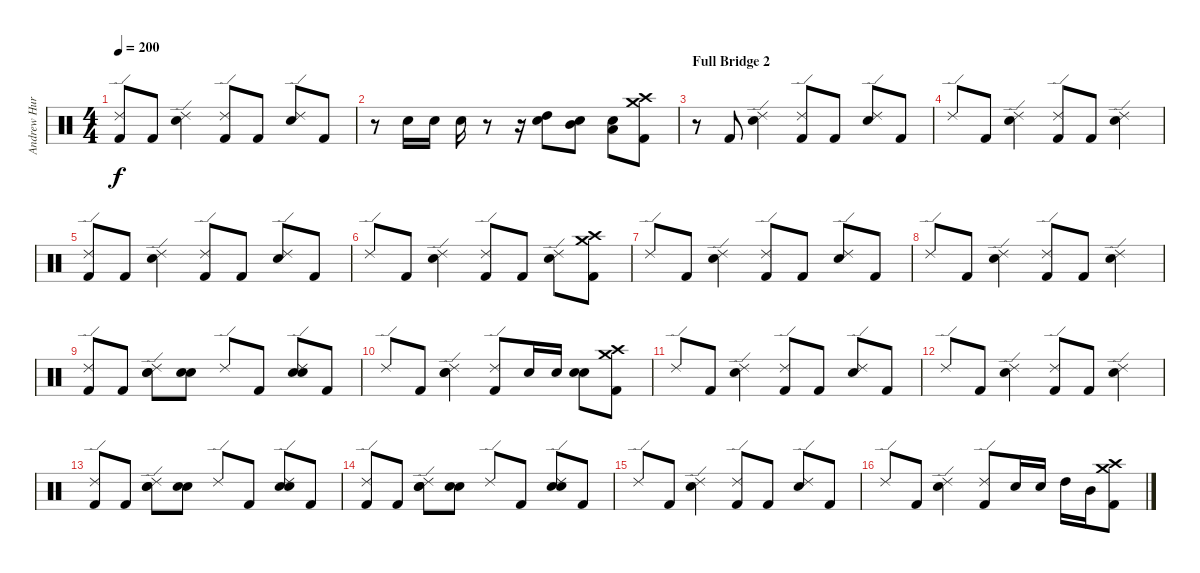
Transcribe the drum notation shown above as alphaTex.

\track ("Andrew Hurley (Drums)" "Andrew Hur") {instrument percussion}
\staff {score}
\articulation defaults
\ts (4 4)
\tempo 200
\clef neutral
\ks c
("Kick (hit) 2" "Ride (edge) 2").8{dy f} "Kick (hit) 2".8 ("Electric Snare (hit)" "Ride (edge) 2").4 ("Kick (hit) 2" "Ride (edge) 2").8 "Kick (hit) 2".8 ("Electric Snare (hit)" "Ride (edge) 2").8 "Kick (hit) 2".8 |
r.8 "Electric Snare (hit)".16 "Electric Snare (hit)".16 "Electric Snare (hit)".16 r.8 r.16 ("High Tom (hit)" "Electric Snare (hit)").8 ("Mid Tom (hit)" "Electric Snare (hit)").8 ("Low Tom (hit)" "Electric Snare (hit)").8 ("Kick (hit) 2" "Crash medium (hit)" "Crash high (hit)").8 |
\section ("" "Full Bridge 2")
r.8 "Kick (hit) 2".8 ("Electric Snare (hit)" "Ride (edge) 2").4 ("Kick (hit) 2" "Ride (edge) 2").8 "Kick (hit) 2".8 ("Electric Snare (hit)" "Ride (edge) 2").8 "Kick (hit) 2".8 |
"Ride (edge) 2".8 "Kick (hit) 2".8 ("Electric Snare (hit)" "Ride (edge) 2").4 ("Kick (hit) 2" "Ride (edge) 2").8 "Kick (hit) 2".8 ("Electric Snare (hit)" "Ride (edge) 2").4 |
("Kick (hit) 2" "Ride (edge) 2").8 "Kick (hit) 2".8 ("Electric Snare (hit)" "Ride (edge) 2").4 ("Kick (hit) 2" "Ride (edge) 2").8 "Kick (hit) 2".8 ("Electric Snare (hit)" "Ride (edge) 2").8 "Kick (hit) 2".8 |
"Ride (edge) 2".8 "Kick (hit) 2".8 ("Electric Snare (hit)" "Ride (edge) 2").4 ("Kick (hit) 2" "Ride (edge) 2").8 "Kick (hit) 2".8 ("Electric Snare (hit)" "Ride (edge) 2").8 ("Kick (hit) 2" "Crash high (hit)" "Crash medium (hit)").8 |
"Ride (edge) 2".8 "Kick (hit) 2".8 ("Electric Snare (hit)" "Ride (edge) 2").4 ("Kick (hit) 2" "Ride (edge) 2").8 "Kick (hit) 2".8 ("Electric Snare (hit)" "Ride (edge) 2").8 "Kick (hit) 2".8 |
"Ride (edge) 2".8 "Kick (hit) 2".8 ("Electric Snare (hit)" "Ride (edge) 2").4 ("Kick (hit) 2" "Ride (edge) 2").8 "Kick (hit) 2".8 ("Electric Snare (hit)" "Ride (edge) 2").4 |
("Kick (hit) 2" "Ride (edge) 2").8 "Kick (hit) 2".8 ("Hand Clap (hit)" "Electric Snare (hit)" "Ride (edge) 2").8 ("Hand Clap (hit)" "Electric Snare (hit)").8 "Ride (edge) 2".8 "Kick (hit) 2".8 ("Hand Clap (hit)" "Electric Snare (hit)" "Ride (edge) 2").8 "Kick (hit) 2".8 |
"Ride (edge) 2".8 "Kick (hit) 2".8 ("Hand Clap (hit)" "Electric Snare (hit)" "Ride (edge) 2").4 ("Kick (hit) 2" "Ride (edge) 2").8 "Electric Snare (hit)".16 "Electric Snare (hit)".16 ("Hand Clap (hit)" "Electric Snare (hit)").8 ("Kick (hit) 2" "Crash medium (hit)" "Crash high (hit)").8 |
"Ride (edge) 2".8 "Kick (hit) 2".8 ("Electric Snare (hit)" "Ride (edge) 2").4 ("Kick (hit) 2" "Ride (edge) 2").8 "Kick (hit) 2".8 ("Electric Snare (hit)" "Ride (edge) 2").8 "Kick (hit) 2".8 |
"Ride (edge) 2".8 "Kick (hit) 2".8 ("Electric Snare (hit)" "Ride (edge) 2").4 ("Kick (hit) 2" "Ride (edge) 2").8 "Kick (hit) 2".8 ("Electric Snare (hit)" "Ride (edge) 2").4 |
("Kick (hit) 2" "Ride (edge) 2").8 "Kick (hit) 2".8 ("Hand Clap (hit)" "Electric Snare (hit)" "Ride (edge) 2").8 ("Hand Clap (hit)" "Electric Snare (hit)").8 "Ride (edge) 2".8 "Kick (hit) 2".8 ("Hand Clap (hit)" "Electric Snare (hit)" "Ride (edge) 2").8 "Kick (hit) 2".8 |
("Kick (hit) 2" "Ride (edge) 2").8 "Kick (hit) 2".8 ("Hand Clap (hit)" "Electric Snare (hit)" "Ride (edge) 2").8 ("Hand Clap (hit)" "Electric Snare (hit)").8 "Ride (edge) 2".8 "Kick (hit) 2".8 ("Hand Clap (hit)" "Electric Snare (hit)" "Ride (edge) 2").8 "Kick (hit) 2".8 |
"Ride (edge) 2".8 "Kick (hit) 2".8 ("Electric Snare (hit)" "Ride (edge) 2").4 ("Kick (hit) 2" "Ride (edge) 2").8 "Kick (hit) 2".8 ("Electric Snare (hit)" "Ride (edge) 2").8 "Kick (hit) 2".8 |
"Ride (edge) 2".8 "Kick (hit) 2".8 ("Electric Snare (hit)" "Ride (edge) 2").4 ("Kick (hit) 2" "Ride (edge) 2").8 "Electric Snare (hit)".16 "Electric Snare (hit)".16 "High Tom (hit)".16 "Mid Tom (hit)".16 ("Kick (hit) 2" "Crash medium (hit)" "Crash high (hit)").8
